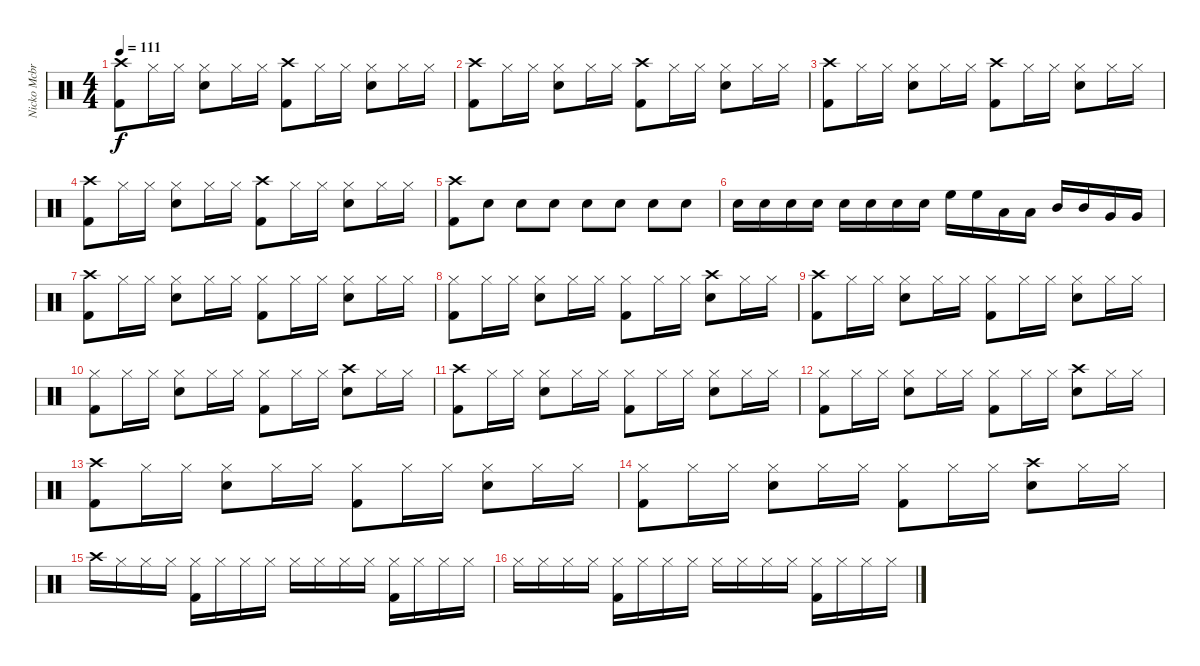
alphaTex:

\track ("Nicko Mcbrain" "Nicko Mcbr") {instrument percussion}
\staff {score}
\articulation defaults
\ts (4 4)
\tempo 111
\clef neutral
\ks c
("Crash high (hit)" "Kick (hit) 2").8{dy f} "Hi-Hat (closed)".16 "Hi-Hat (closed)".16 ("Hi-Hat (closed)" "Snare (hit) 2").8 "Hi-Hat (closed)".16 "Hi-Hat (closed)".16 ("Crash high (hit)" "Kick (hit) 2").8 "Hi-Hat (closed)".16 "Hi-Hat (closed)".16 ("Hi-Hat (closed)" "Snare (hit) 2").8 "Hi-Hat (closed)".16 "Hi-Hat (closed)".16 |
("Crash high (hit)" "Kick (hit) 2").8 "Hi-Hat (closed)".16 "Hi-Hat (closed)".16 ("Hi-Hat (closed)" "Snare (hit) 2").8 "Hi-Hat (closed)".16 "Hi-Hat (closed)".16 ("Crash high (hit)" "Kick (hit) 2").8 "Hi-Hat (closed)".16 "Hi-Hat (closed)".16 ("Hi-Hat (closed)" "Snare (hit) 2").8 "Hi-Hat (closed)".16 "Hi-Hat (closed)".16 |
("Crash high (hit)" "Kick (hit) 2").8 "Hi-Hat (closed)".16 "Hi-Hat (closed)".16 ("Hi-Hat (closed)" "Snare (hit) 2").8 "Hi-Hat (closed)".16 "Hi-Hat (closed)".16 ("Crash high (hit)" "Kick (hit) 2").8 "Hi-Hat (closed)".16 "Hi-Hat (closed)".16 ("Hi-Hat (closed)" "Snare (hit) 2").8 "Hi-Hat (closed)".16 "Hi-Hat (closed)".16 |
("Crash high (hit)" "Kick (hit) 2").8 "Hi-Hat (closed)".16 "Hi-Hat (closed)".16 ("Hi-Hat (closed)" "Snare (hit) 2").8 "Hi-Hat (closed)".16 "Hi-Hat (closed)".16 ("Crash high (hit)" "Kick (hit) 2").8 "Hi-Hat (closed)".16 "Hi-Hat (closed)".16 ("Hi-Hat (closed)" "Snare (hit) 2").8 "Hi-Hat (closed)".16 "Hi-Hat (closed)".16 |
("Crash high (hit)" "Kick (hit) 2").8 "Snare (hit) 2".8 "Snare (hit) 2".8 "Snare (hit) 2".8 "Snare (hit) 2".8 "Snare (hit) 2".8 "Snare (hit) 2".8 "Snare (hit) 2".8 |
"Snare (hit) 2".16 "Snare (hit) 2".16 "Snare (hit) 2".16 "Snare (hit) 2".16 "Snare (hit) 2".16 "Snare (hit) 2".16 "Snare (hit) 2".16 "Snare (hit) 2".16 "High Floor Tom (hit)".16 "High Floor Tom (hit)".16 "Low Tom (hit)".16 "Low Tom (hit)".16 "Mid Tom (hit)".16 "Mid Tom (hit)".16 "Very Low Tom (hit)".16 "Very Low Tom (hit)".16 |
("Crash high (hit)" "Kick (hit) 2").8 "Hi-Hat (closed)".16 "Hi-Hat (closed)".16 ("Hi-Hat (closed)" "Snare (hit) 2").8 "Hi-Hat (closed)".16 "Hi-Hat (closed)".16 ("Hi-Hat (closed)" "Kick (hit) 2").8 "Hi-Hat (closed)".16 "Hi-Hat (closed)".16 ("Hi-Hat (closed)" "Snare (hit) 2").8 "Hi-Hat (closed)".16 "Hi-Hat (closed)".16 |
("Hi-Hat (closed)" "Kick (hit) 2").8 "Hi-Hat (closed)".16 "Hi-Hat (closed)".16 ("Hi-Hat (closed)" "Snare (hit) 2").8 "Hi-Hat (closed)".16 "Hi-Hat (closed)".16 ("Hi-Hat (closed)" "Kick (hit) 2").8 "Hi-Hat (closed)".16 "Hi-Hat (closed)".16 ("Crash high (hit)" "Snare (hit) 2").8 "Hi-Hat (closed)".16 "Hi-Hat (closed)".16 |
("Crash high (hit)" "Kick (hit) 2").8 "Hi-Hat (closed)".16 "Hi-Hat (closed)".16 ("Hi-Hat (closed)" "Snare (hit) 2").8 "Hi-Hat (closed)".16 "Hi-Hat (closed)".16 ("Hi-Hat (closed)" "Kick (hit) 2").8 "Hi-Hat (closed)".16 "Hi-Hat (closed)".16 ("Hi-Hat (closed)" "Snare (hit) 2").8 "Hi-Hat (closed)".16 "Hi-Hat (closed)".16 |
("Hi-Hat (closed)" "Kick (hit) 2").8 "Hi-Hat (closed)".16 "Hi-Hat (closed)".16 ("Hi-Hat (closed)" "Snare (hit) 2").8 "Hi-Hat (closed)".16 "Hi-Hat (closed)".16 ("Hi-Hat (closed)" "Kick (hit) 2").8 "Hi-Hat (closed)".16 "Hi-Hat (closed)".16 ("Crash high (hit)" "Snare (hit) 2").8 "Hi-Hat (closed)".16 "Hi-Hat (closed)".16 |
("Crash high (hit)" "Kick (hit) 2").8 "Hi-Hat (closed)".16 "Hi-Hat (closed)".16 ("Hi-Hat (closed)" "Snare (hit) 2").8 "Hi-Hat (closed)".16 "Hi-Hat (closed)".16 ("Hi-Hat (closed)" "Kick (hit) 2").8 "Hi-Hat (closed)".16 "Hi-Hat (closed)".16 ("Hi-Hat (closed)" "Snare (hit) 2").8 "Hi-Hat (closed)".16 "Hi-Hat (closed)".16 |
("Hi-Hat (closed)" "Kick (hit) 2").8 "Hi-Hat (closed)".16 "Hi-Hat (closed)".16 ("Hi-Hat (closed)" "Snare (hit) 2").8 "Hi-Hat (closed)".16 "Hi-Hat (closed)".16 ("Hi-Hat (closed)" "Kick (hit) 2").8 "Hi-Hat (closed)".16 "Hi-Hat (closed)".16 ("Crash high (hit)" "Snare (hit) 2").8 "Hi-Hat (closed)".16 "Hi-Hat (closed)".16 |
("Crash high (hit)" "Kick (hit) 2").8 "Hi-Hat (closed)".16 "Hi-Hat (closed)".16 ("Hi-Hat (closed)" "Snare (hit) 2").8 "Hi-Hat (closed)".16 "Hi-Hat (closed)".16 ("Hi-Hat (closed)" "Kick (hit) 2").8 "Hi-Hat (closed)".16 "Hi-Hat (closed)".16 ("Hi-Hat (closed)" "Snare (hit) 2").8 "Hi-Hat (closed)".16 "Hi-Hat (closed)".16 |
("Hi-Hat (closed)" "Kick (hit) 2").8 "Hi-Hat (closed)".16 "Hi-Hat (closed)".16 ("Hi-Hat (closed)" "Snare (hit) 2").8 "Hi-Hat (closed)".16 "Hi-Hat (closed)".16 ("Hi-Hat (closed)" "Kick (hit) 2").8 "Hi-Hat (closed)".16 "Hi-Hat (closed)".16 ("Crash high (hit)" "Snare (hit) 2").8 "Hi-Hat (closed)".16 "Hi-Hat (closed)".16 |
"Crash high (hit)".16 "Hi-Hat (closed)".16 "Hi-Hat (closed)".16 "Hi-Hat (closed)".16 ("Hi-Hat (closed)" "Kick (hit) 2").16 "Hi-Hat (closed)".16 "Hi-Hat (closed)".16 "Hi-Hat (closed)".16 "Hi-Hat (closed)".16 "Hi-Hat (closed)".16 "Hi-Hat (closed)".16 "Hi-Hat (closed)".16 ("Hi-Hat (closed)" "Kick (hit) 2").16 "Hi-Hat (closed)".16 "Hi-Hat (closed)".16 "Hi-Hat (closed)".16 |
"Hi-Hat (closed)".16 "Hi-Hat (closed)".16 "Hi-Hat (closed)".16 "Hi-Hat (closed)".16 ("Hi-Hat (closed)" "Kick (hit) 2").16 "Hi-Hat (closed)".16 "Hi-Hat (closed)".16 "Hi-Hat (closed)".16 "Hi-Hat (closed)".16 "Hi-Hat (closed)".16 "Hi-Hat (closed)".16 "Hi-Hat (closed)".16 ("Hi-Hat (closed)" "Kick (hit) 2").16 "Hi-Hat (closed)".16 "Hi-Hat (closed)".16 "Hi-Hat (closed)".16
